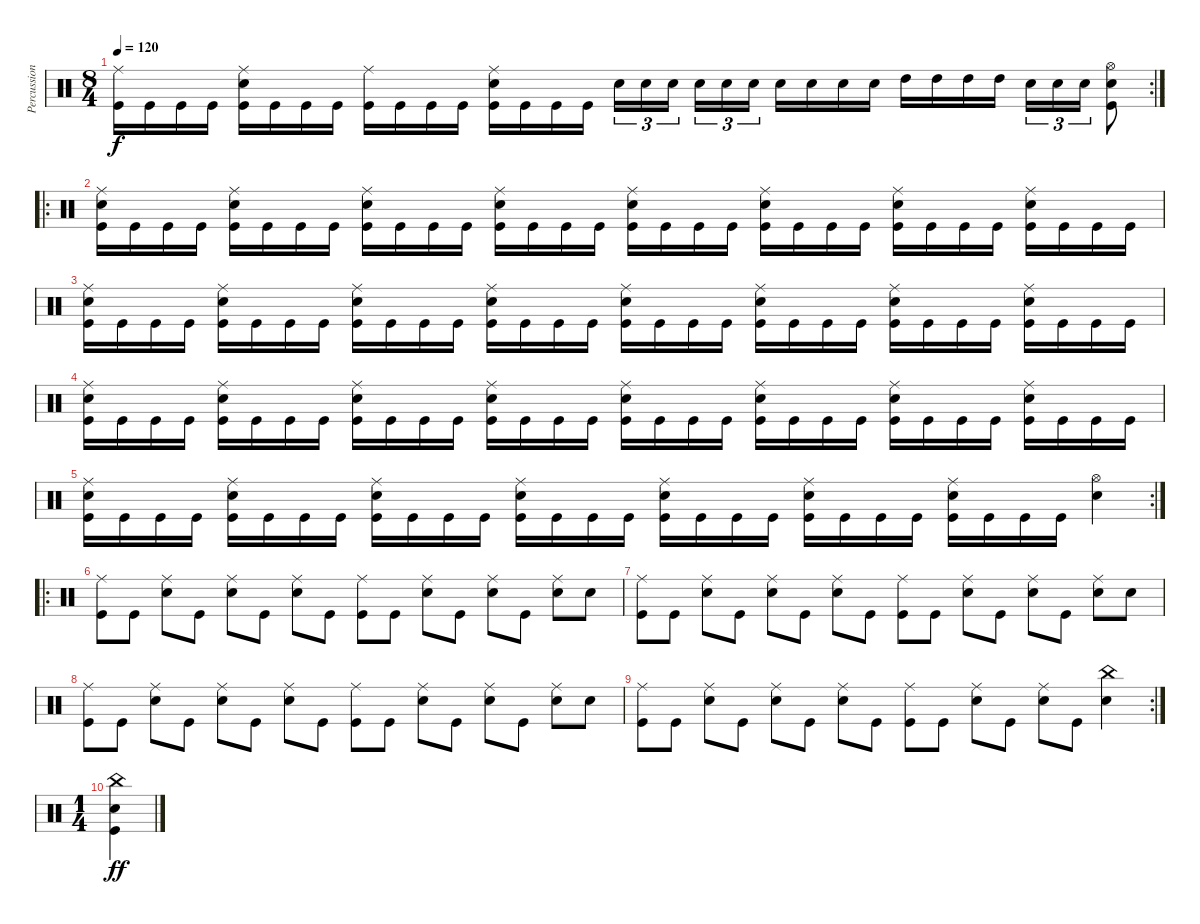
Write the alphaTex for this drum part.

\track ("Percussion" "Percussion") {instrument percussion}
\staff {score}
\articulation defaults
\rc 2
\ts (8 4)
\tempo 120
\clef neutral
\ks c
("Ride (middle)" "Kick (hit)").16{dy f} "Kick (hit)".16 "Kick (hit)".16 "Kick (hit)".16 ("Snare (hit) 2" "Kick (hit)" "Ride (middle)").16 "Kick (hit)".16 "Kick (hit)".16 "Kick (hit)".16 ("Ride (middle)" "Kick (hit)").16 "Kick (hit)".16 "Kick (hit)".16 "Kick (hit)".16 ("Snare (hit) 2" "Kick (hit)" "Ride (middle)").16 "Kick (hit)".16 "Kick (hit)".16 "Kick (hit)".16 "Snare (hit) 2".16{tu (3 2)} "Snare (hit) 2".16{tu (3 2)} "Snare (hit) 2".16{tu (3 2) beam splitsecondary} "Snare (hit) 2".16{tu (3 2)} "Snare (hit) 2".16{tu (3 2)} "Snare (hit) 2".16{tu (3 2)} "Snare (hit) 2".16 "Snare (hit) 2".16 "Snare (hit) 2".16 "Snare (hit) 2".16 "High Tom (hit)".16 "High Tom (hit)".16 "High Tom (hit)".16 "High Tom (hit)".16 "Snare (hit) 2".16{tu (3 2)} "Snare (hit) 2".16{tu (3 2)} "Snare (hit) 2".16{tu (3 2)} ("Snare (hit) 2" "Kick (hit)" "Hi-Hat (open)").8 |
\ro
("Snare (hit) 2" "Ride (middle)" "Kick (hit)").16 "Kick (hit)".16 "Kick (hit)".16 "Kick (hit)".16 ("Snare (hit) 2" "Ride (middle)" "Kick (hit)").16 "Kick (hit)".16 "Kick (hit)".16 "Kick (hit)".16 ("Snare (hit) 2" "Ride (middle)" "Kick (hit)").16 "Kick (hit)".16 "Kick (hit)".16 "Kick (hit)".16 ("Snare (hit) 2" "Ride (middle)" "Kick (hit)").16 "Kick (hit)".16 "Kick (hit)".16 "Kick (hit)".16 ("Snare (hit) 2" "Ride (middle)" "Kick (hit)").16 "Kick (hit)".16 "Kick (hit)".16 "Kick (hit)".16 ("Snare (hit) 2" "Ride (middle)" "Kick (hit)").16 "Kick (hit)".16 "Kick (hit)".16 "Kick (hit)".16 ("Snare (hit) 2" "Ride (middle)" "Kick (hit)").16 "Kick (hit)".16 "Kick (hit)".16 "Kick (hit)".16 ("Snare (hit) 2" "Ride (middle)" "Kick (hit)").16 "Kick (hit)".16 "Kick (hit)".16 "Kick (hit)".16 |
("Snare (hit) 2" "Ride (middle)" "Kick (hit)").16 "Kick (hit)".16 "Kick (hit)".16 "Kick (hit)".16 ("Snare (hit) 2" "Ride (middle)" "Kick (hit)").16 "Kick (hit)".16 "Kick (hit)".16 "Kick (hit)".16 ("Snare (hit) 2" "Ride (middle)" "Kick (hit)").16 "Kick (hit)".16 "Kick (hit)".16 "Kick (hit)".16 ("Snare (hit) 2" "Ride (middle)" "Kick (hit)").16 "Kick (hit)".16 "Kick (hit)".16 "Kick (hit)".16 ("Snare (hit) 2" "Ride (middle)" "Kick (hit)").16 "Kick (hit)".16 "Kick (hit)".16 "Kick (hit)".16 ("Snare (hit) 2" "Ride (middle)" "Kick (hit)").16 "Kick (hit)".16 "Kick (hit)".16 "Kick (hit)".16 ("Snare (hit) 2" "Ride (middle)" "Kick (hit)").16 "Kick (hit)".16 "Kick (hit)".16 "Kick (hit)".16 ("Snare (hit) 2" "Ride (middle)" "Kick (hit)").16 "Kick (hit)".16 "Kick (hit)".16 "Kick (hit)".16 |
("Snare (hit) 2" "Ride (middle)" "Kick (hit)").16 "Kick (hit)".16 "Kick (hit)".16 "Kick (hit)".16 ("Snare (hit) 2" "Ride (middle)" "Kick (hit)").16 "Kick (hit)".16 "Kick (hit)".16 "Kick (hit)".16 ("Snare (hit) 2" "Ride (middle)" "Kick (hit)").16 "Kick (hit)".16 "Kick (hit)".16 "Kick (hit)".16 ("Snare (hit) 2" "Ride (middle)" "Kick (hit)").16 "Kick (hit)".16 "Kick (hit)".16 "Kick (hit)".16 ("Snare (hit) 2" "Ride (middle)" "Kick (hit)").16 "Kick (hit)".16 "Kick (hit)".16 "Kick (hit)".16 ("Snare (hit) 2" "Ride (middle)" "Kick (hit)").16 "Kick (hit)".16 "Kick (hit)".16 "Kick (hit)".16 ("Snare (hit) 2" "Ride (middle)" "Kick (hit)").16 "Kick (hit)".16 "Kick (hit)".16 "Kick (hit)".16 ("Snare (hit) 2" "Ride (middle)" "Kick (hit)").16 "Kick (hit)".16 "Kick (hit)".16 "Kick (hit)".16 |
\rc 2
("Snare (hit) 2" "Ride (middle)" "Kick (hit)").16 "Kick (hit)".16 "Kick (hit)".16 "Kick (hit)".16 ("Snare (hit) 2" "Ride (middle)" "Kick (hit)").16 "Kick (hit)".16 "Kick (hit)".16 "Kick (hit)".16 ("Snare (hit) 2" "Ride (middle)" "Kick (hit)").16 "Kick (hit)".16 "Kick (hit)".16 "Kick (hit)".16 ("Snare (hit) 2" "Ride (middle)" "Kick (hit)").16 "Kick (hit)".16 "Kick (hit)".16 "Kick (hit)".16 ("Snare (hit) 2" "Ride (middle)" "Kick (hit)").16 "Kick (hit)".16 "Kick (hit)".16 "Kick (hit)".16 ("Snare (hit) 2" "Ride (middle)" "Kick (hit)").16 "Kick (hit)".16 "Kick (hit)".16 "Kick (hit)".16 ("Snare (hit) 2" "Ride (middle)" "Kick (hit)").16 "Kick (hit)".16 "Kick (hit)".16 "Kick (hit)".16 ("Snare (hit) 2" "Hi-Hat (open)").4 |
\ro
("Kick (hit)" "Ride (middle)").8 "Kick (hit)".8 ("Snare (hit) 2" "Ride (middle)").8 "Kick (hit)".8 ("Snare (hit) 2" "Ride (middle)").8 "Kick (hit)".8 ("Ride (middle)" "Snare (hit) 2").8 "Kick (hit)".8 ("Kick (hit)" "Ride (middle)").8 "Kick (hit)".8 ("Snare (hit) 2" "Ride (middle)").8 "Kick (hit)".8 ("Snare (hit) 2" "Ride (middle)").8 "Kick (hit)".8 ("Ride (middle)" "Snare (hit) 2").8 "Snare (hit) 2".8 |
("Kick (hit)" "Ride (middle)").8 "Kick (hit)".8 ("Snare (hit) 2" "Ride (middle)").8 "Kick (hit)".8 ("Snare (hit) 2" "Ride (middle)").8 "Kick (hit)".8 ("Ride (middle)" "Snare (hit) 2").8 "Kick (hit)".8 ("Kick (hit)" "Ride (middle)").8 "Kick (hit)".8 ("Snare (hit) 2" "Ride (middle)").8 "Kick (hit)".8 ("Snare (hit) 2" "Ride (middle)").8 "Kick (hit)".8 ("Ride (middle)" "Snare (hit) 2").8 "Snare (hit) 2".8 |
("Kick (hit)" "Ride (middle)").8 "Kick (hit)".8 ("Snare (hit) 2" "Ride (middle)").8 "Kick (hit)".8 ("Snare (hit) 2" "Ride (middle)").8 "Kick (hit)".8 ("Ride (middle)" "Snare (hit) 2").8 "Kick (hit)".8 ("Kick (hit)" "Ride (middle)").8 "Kick (hit)".8 ("Snare (hit) 2" "Ride (middle)").8 "Kick (hit)".8 ("Snare (hit) 2" "Ride (middle)").8 "Kick (hit)".8 ("Ride (middle)" "Snare (hit) 2").8 "Snare (hit) 2".8 |
\rc 2
("Kick (hit)" "Ride (middle)").8 "Kick (hit)".8 ("Snare (hit) 2" "Ride (middle)").8 "Kick (hit)".8 ("Snare (hit) 2" "Ride (middle)").8 "Kick (hit)".8 ("Ride (middle)" "Snare (hit) 2").8 "Kick (hit)".8 ("Kick (hit)" "Ride (middle)").8 "Kick (hit)".8 ("Snare (hit) 2" "Ride (middle)").8 "Kick (hit)".8 ("Snare (hit) 2" "Ride (middle)").8 "Kick (hit)".8 ("China (hit)" "Snare (hit) 2").4 |
\ts (1 4)
("Kick (hit)" "Snare (hit) 2" "China (hit)").4{dy ff}
